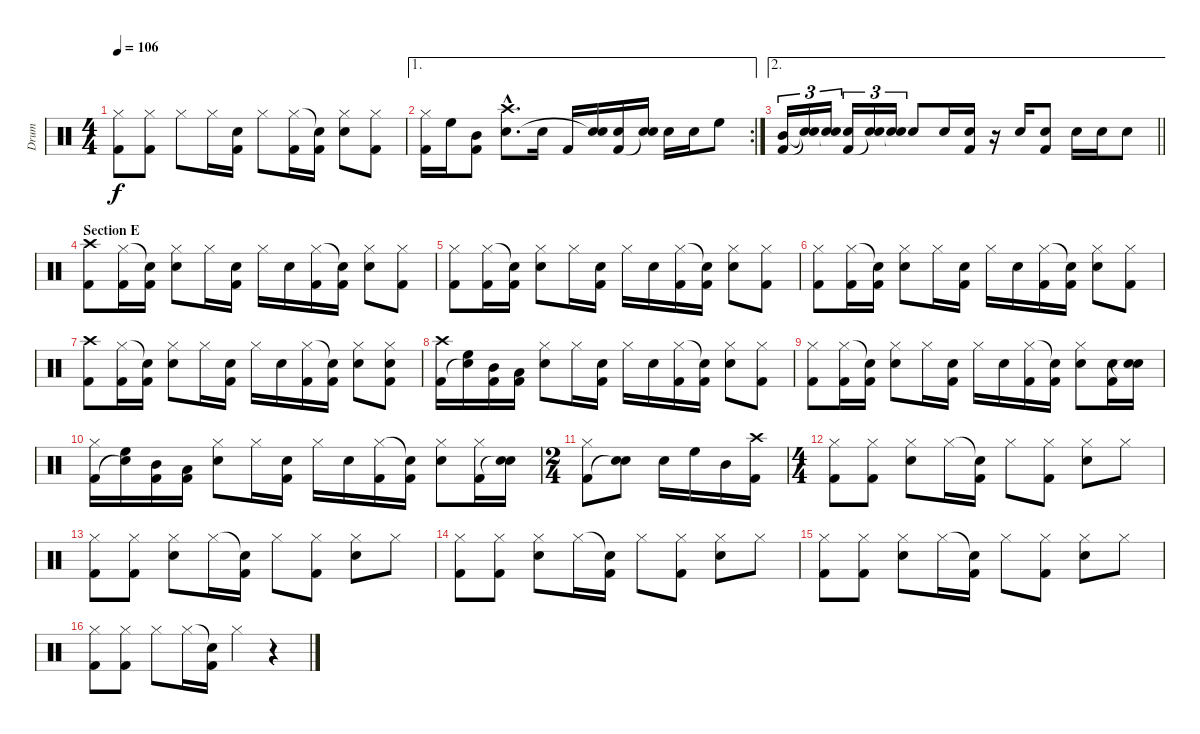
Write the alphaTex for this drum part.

\track ("Drum" "Drum") {instrument percussion}
\staff {score}
\articulation defaults
\ts (4 4)
\tempo 106
\clef neutral
\ks c
("Hi-Hat (closed)" "Kick (hit) 2").8{dy f} ("Hi-Hat (closed)" "Kick (hit) 2").8 "Hi-Hat (closed)".8 "Hi-Hat (closed)".16 ("Snare (hit) 2" "Kick (hit) 2").16 "Hi-Hat (closed)".8 ("Hi-Hat (closed)" "Kick (hit) 2").16 ("Snare (hit)"{t} "Kick (hit) 2").16 ("Hi-Hat (closed)" "Snare (hit) 2").8 ("Hi-Hat (closed)" "Kick (hit) 2").8 |
\ae 1
\rc 2
("Hi-Hat (closed)" "Kick (hit) 2").16 "High Floor Tom (hit)".16 ("Mid Tom (hit)" "Kick (hit) 2").8 ("Crash high (hit)"{hac} "Snare (hit) 2"{hac}).8{d} "Snare (hit) 2".16 "Kick (hit) 2".16 ("Snare (hit) 2" "Snare (hit)"{t}).16 ("Snare (hit) 2" "Kick (hit) 2").16 ("Snare (hit) 2" "Snare (hit)"{t}).16 "Snare (hit) 2".16 "Snare (hit) 2".16 "High Floor Tom (hit)".8 |
\ae 2
\barLineRight lightlight
("Mid Tom (hit)" "Kick (hit) 2").16{tu (3 2)} ("Snare (hit) 2"{t} "Snare (hit)"{t}).16{tu (3 2)} ("Snare (hit) 2" "Snare (hit)"{t}).16{tu (3 2)} ("Snare (hit) 2" "Kick (hit) 2").16{tu (3 2)} ("Snare (hit) 2" "Snare (hit)"{t}).16{tu (3 2)} ("Snare (hit) 2" "Snare (hit)"{t}).16{tu (3 2)} "Snare (hit) 2".8 "Snare (hit) 2".16 ("Snare (hit) 2" "Kick (hit) 2").16 r.16 "Snare (hit) 2".16 ("Snare (hit) 2" "Kick (hit) 2").8 "Snare (hit) 2".16 "Snare (hit) 2".16 "Snare (hit) 2".8 |
\section ("" "Section E")
("Crash high (hit)" "Kick (hit) 2").8 ("Hi-Hat (closed)" "Kick (hit) 2").16 ("Snare (hit)"{t} "Kick (hit) 2").16 ("Hi-Hat (closed)" "Snare (hit) 2").8 "Hi-Hat (closed)".16 ("Snare (hit) 2" "Kick (hit) 2").16 "Hi-Hat (closed)".16 "Snare (hit) 2".16 ("Hi-Hat (closed)" "Kick (hit) 2").16 ("Snare (hit)"{t} "Kick (hit) 2").16 ("Hi-Hat (closed)" "Snare (hit) 2").8 ("Hi-Hat (closed)" "Kick (hit) 2").8 |
("Hi-Hat (closed)" "Kick (hit) 2").8 ("Hi-Hat (closed)" "Kick (hit) 2").16 ("Snare (hit)"{t} "Kick (hit) 2").16 ("Hi-Hat (closed)" "Snare (hit) 2").8 "Hi-Hat (closed)".16 ("Snare (hit) 2" "Kick (hit) 2").16 "Hi-Hat (closed)".16 "Snare (hit) 2".16 ("Hi-Hat (closed)" "Kick (hit) 2").16 ("Snare (hit)"{t} "Kick (hit) 2").16 ("Hi-Hat (closed)" "Snare (hit) 2").8 ("Hi-Hat (closed)" "Kick (hit) 2").8 |
("Hi-Hat (closed)" "Kick (hit) 2").8 ("Hi-Hat (closed)" "Kick (hit) 2").16 ("Snare (hit)"{t} "Kick (hit) 2").16 ("Hi-Hat (closed)" "Snare (hit) 2").8 "Hi-Hat (closed)".16 ("Snare (hit) 2" "Kick (hit) 2").16 "Hi-Hat (closed)".16 "Snare (hit) 2".16 ("Hi-Hat (closed)" "Kick (hit) 2").16 ("Snare (hit)"{t} "Kick (hit) 2").16 ("Hi-Hat (closed)" "Snare (hit) 2").8 ("Hi-Hat (closed)" "Kick (hit) 2").8 |
("Crash high (hit)" "Kick (hit) 2").8 ("Hi-Hat (closed)" "Kick (hit) 2").16 ("Snare (hit)"{t} "Kick (hit) 2").16 ("Hi-Hat (closed)" "Snare (hit) 2").8 "Hi-Hat (closed)".16 ("Snare (hit) 2" "Kick (hit) 2").16 "Hi-Hat (closed)".16 "Snare (hit) 2".16 ("Hi-Hat (closed)" "Kick (hit) 2").16 ("Snare (hit)"{t} "Kick (hit) 2").16 ("Hi-Hat (closed)" "Snare (hit) 2").8 ("Hi-Hat (closed)" "Snare (hit) 2" "Kick (hit) 2").8 |
("Crash high (hit)" "Kick (hit) 2").16 ("High Floor Tom (hit)" "Snare (hit)"{t}).16 ("Mid Tom (hit)" "Kick (hit) 2").16 ("Low Tom (hit)" "Kick (hit) 2").16 ("Hi-Hat (closed)" "Snare (hit) 2").8 "Hi-Hat (closed)".16 ("Snare (hit) 2" "Kick (hit) 2").16 "Hi-Hat (closed)".16 "Snare (hit) 2".16 ("Hi-Hat (closed)" "Kick (hit) 2").16 ("Snare (hit)"{t} "Kick (hit) 2").16 ("Hi-Hat (closed)" "Snare (hit) 2").8 ("Hi-Hat (closed)" "Kick (hit) 2").8 |
("Hi-Hat (closed)" "Kick (hit) 2").8 ("Hi-Hat (closed)" "Kick (hit) 2").16 ("Snare (hit)"{t} "Kick (hit) 2").16 ("Hi-Hat (closed)" "Snare (hit) 2").8 "Hi-Hat (closed)".16 ("Snare (hit) 2" "Kick (hit) 2").16 "Hi-Hat (closed)".16 "Snare (hit) 2".16 ("Hi-Hat (closed)" "Kick (hit) 2").16 ("Snare (hit)"{t} "Kick (hit) 2").16 ("Hi-Hat (closed)" "Snare (hit) 2").8 ("Snare (hit) 2" "Kick (hit) 2").16 ("Snare (hit) 2" "Snare (hit)"{t}).16 |
("Hi-Hat (closed)" "Kick (hit) 2").16 ("High Floor Tom (hit)" "Snare (hit)"{t}).16 ("Mid Tom (hit)" "Kick (hit) 2").16 ("Low Tom (hit)" "Kick (hit) 2").16 ("Hi-Hat (closed)" "Snare (hit) 2").8 "Hi-Hat (closed)".16 ("Snare (hit) 2" "Kick (hit) 2").16 "Hi-Hat (closed)".16 "Snare (hit) 2".16 ("Hi-Hat (closed)" "Kick (hit) 2").16 ("Snare (hit)"{t} "Kick (hit) 2").16 ("Hi-Hat (closed)" "Snare (hit) 2").8 ("Hi-Hat (closed)" "Kick (hit) 2").16 ("Snare (hit) 2" "Snare (hit)"{t}).16 |
\ts (2 4)
("Hi-Hat (closed)" "Kick (hit) 2").8 ("Snare (hit) 2" "Snare (hit)"{t}).8 "Snare (hit) 2".16 "High Floor Tom (hit)".16 "Mid Tom (hit)".16 ("Crash high (hit)" "Kick (hit) 2").16 |
\ts (4 4)
("Hi-Hat (closed)" "Kick (hit) 2").8 ("Hi-Hat (closed)" "Kick (hit) 2").8 ("Hi-Hat (closed)" "Snare (hit) 2").8 "Hi-Hat (closed)".16 ("Snare (hit)"{t} "Kick (hit) 2").16 "Hi-Hat (closed)".8 ("Hi-Hat (closed)" "Kick (hit) 2").8 ("Hi-Hat (closed)" "Snare (hit) 2").8 "Hi-Hat (closed)".8 |
("Hi-Hat (closed)" "Kick (hit) 2").8 ("Hi-Hat (closed)" "Kick (hit) 2").8 ("Hi-Hat (closed)" "Snare (hit) 2").8 "Hi-Hat (closed)".16 ("Snare (hit)"{t} "Kick (hit) 2").16 "Hi-Hat (closed)".8 ("Hi-Hat (closed)" "Kick (hit) 2").8 ("Hi-Hat (closed)" "Snare (hit) 2").8 "Hi-Hat (closed)".8 |
("Hi-Hat (closed)" "Kick (hit) 2").8 ("Hi-Hat (closed)" "Kick (hit) 2").8 ("Hi-Hat (closed)" "Snare (hit) 2").8 "Hi-Hat (closed)".16 ("Snare (hit)"{t} "Kick (hit) 2").16 "Hi-Hat (closed)".8 ("Hi-Hat (closed)" "Kick (hit) 2").8 ("Hi-Hat (closed)" "Snare (hit) 2").8 "Hi-Hat (closed)".8 |
("Hi-Hat (closed)" "Kick (hit) 2").8 ("Hi-Hat (closed)" "Kick (hit) 2").8 ("Hi-Hat (closed)" "Snare (hit) 2").8 "Hi-Hat (closed)".16 ("Snare (hit)"{t} "Kick (hit) 2").16 "Hi-Hat (closed)".8 ("Hi-Hat (closed)" "Kick (hit) 2").8 ("Hi-Hat (closed)" "Snare (hit) 2").8 "Hi-Hat (closed)".8 |
("Hi-Hat (closed)" "Kick (hit) 2").8 ("Hi-Hat (closed)" "Kick (hit) 2").8 "Hi-Hat (closed)".8 "Hi-Hat (closed)".16 ("Snare (hit)"{t} "Kick (hit) 2").16 "Hi-Hat (closed)".4 r.4
